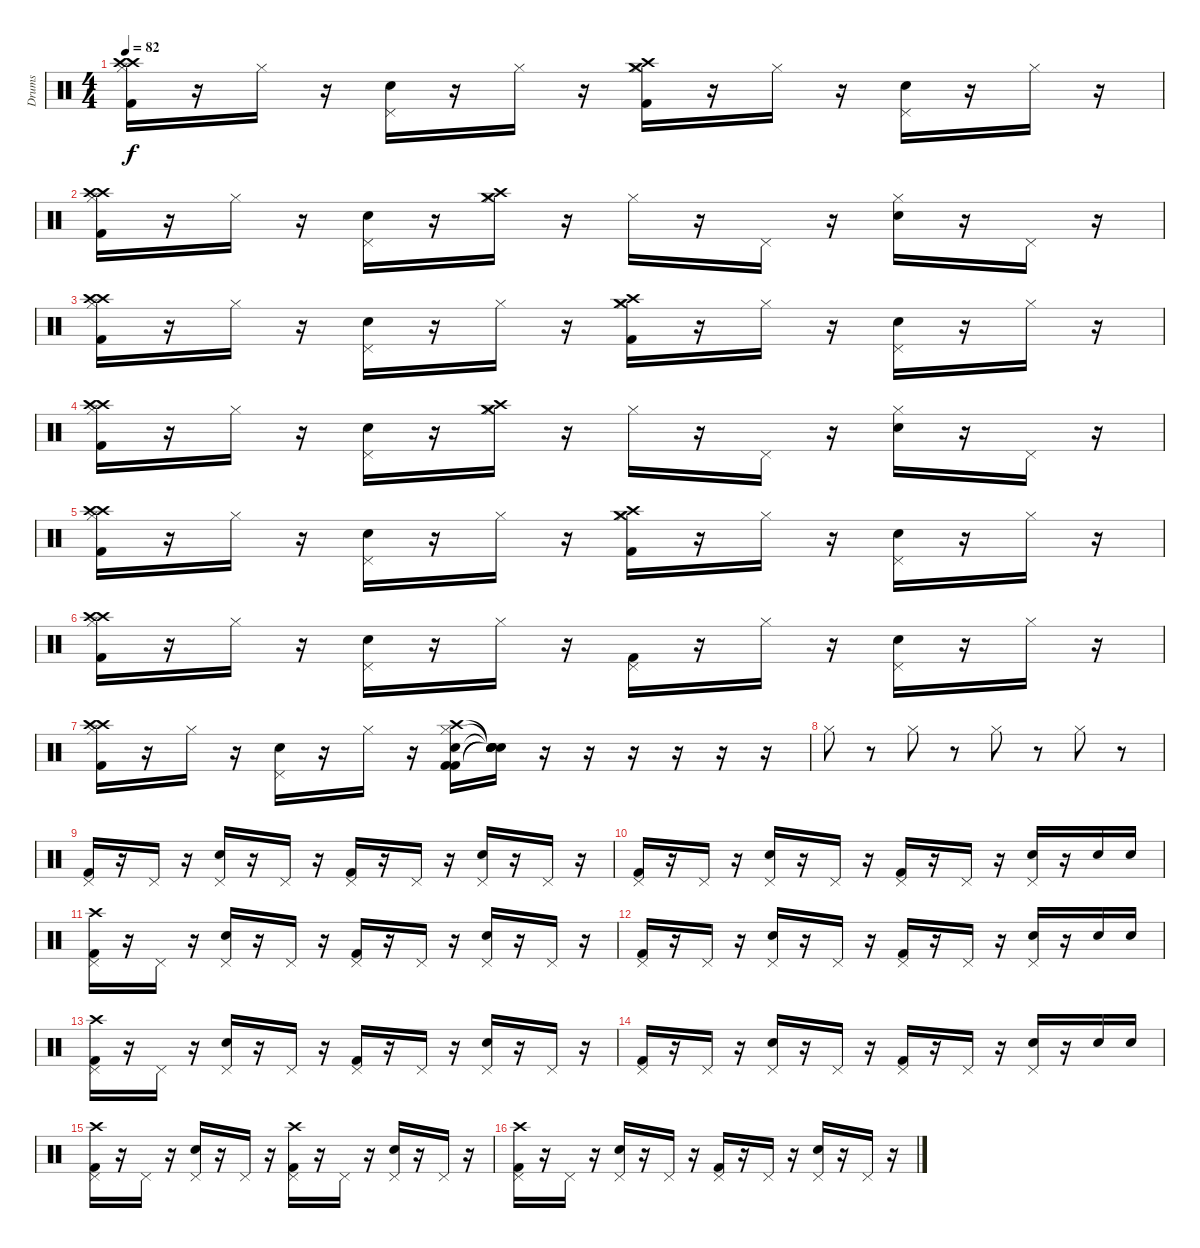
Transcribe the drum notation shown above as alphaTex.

\track ("Drums" "Drums") {instrument percussion}
\staff {score}
\articulation defaults
\ts (4 4)
\tempo 82
\clef neutral
\ks c
("Hi-Hat (closed)" "Crash high (hit)" "Crash high (hit)" "Kick (hit) 2").16{dy f} r.16 "Hi-Hat (closed)".16 r.16 ("Pedal Hi-Hat (hit)" "Snare (hit) 2").16 r.16 "Hi-Hat (closed)".16 r.16 ("Hi-Hat (closed)" "Crash high (hit)" "Crash medium (hit)" "Kick (hit) 2").16 r.16 "Hi-Hat (closed)".16 r.16 ("Pedal Hi-Hat (hit)" "Snare (hit) 2").16 r.16 "Hi-Hat (closed)".16 r.16 |
("Hi-Hat (closed)" "Crash high (hit)" "Crash high (hit)" "Kick (hit) 2").16 r.16 "Hi-Hat (closed)".16 r.16 ("Pedal Hi-Hat (hit)" "Snare (hit) 2").16 r.16 ("Hi-Hat (closed)" "Crash high (hit)" "Crash medium (hit)").16 r.16 "Hi-Hat (closed)".16 r.16 "Pedal Hi-Hat (hit)".16 r.16 ("Hi-Hat (closed)" "Snare (hit) 2").16 r.16 "Pedal Hi-Hat (hit)".16 r.16 |
("Hi-Hat (closed)" "Crash high (hit)" "Crash high (hit)" "Kick (hit) 2").16 r.16 "Hi-Hat (closed)".16 r.16 ("Pedal Hi-Hat (hit)" "Snare (hit) 2").16 r.16 "Hi-Hat (closed)".16 r.16 ("Hi-Hat (closed)" "Crash high (hit)" "Crash medium (hit)" "Kick (hit) 2").16 r.16 "Hi-Hat (closed)".16 r.16 ("Pedal Hi-Hat (hit)" "Snare (hit) 2").16 r.16 "Hi-Hat (closed)".16 r.16 |
("Hi-Hat (closed)" "Crash high (hit)" "Crash high (hit)" "Kick (hit) 2").16 r.16 "Hi-Hat (closed)".16 r.16 ("Pedal Hi-Hat (hit)" "Snare (hit) 2").16 r.16 ("Hi-Hat (closed)" "Crash high (hit)" "Crash medium (hit)").16 r.16 "Hi-Hat (closed)".16 r.16 "Pedal Hi-Hat (hit)".16 r.16 ("Hi-Hat (closed)" "Snare (hit) 2").16 r.16 "Pedal Hi-Hat (hit)".16 r.16 |
("Hi-Hat (closed)" "Crash high (hit)" "Crash high (hit)" "Kick (hit) 2").16 r.16 "Hi-Hat (closed)".16 r.16 ("Pedal Hi-Hat (hit)" "Snare (hit) 2").16 r.16 "Hi-Hat (closed)".16 r.16 ("Hi-Hat (closed)" "Crash high (hit)" "Crash medium (hit)" "Kick (hit) 2").16 r.16 "Hi-Hat (closed)".16 r.16 ("Pedal Hi-Hat (hit)" "Snare (hit) 2").16 r.16 "Hi-Hat (closed)".16 r.16 |
("Hi-Hat (closed)" "Crash high (hit)" "Crash high (hit)" "Kick (hit) 2").16 r.16 "Hi-Hat (closed)".16 r.16 ("Pedal Hi-Hat (hit)" "Snare (hit) 2").16 r.16 "Hi-Hat (closed)".16 r.16 ("Pedal Hi-Hat (hit)" "Kick (hit) 2").16 r.16 "Hi-Hat (closed)".16 r.16 ("Pedal Hi-Hat (hit)" "Snare (hit) 2").16 r.16 "Hi-Hat (closed)".16 r.16 |
("Hi-Hat (closed)" "Crash high (hit)" "Crash high (hit)" "Kick (hit) 2").16 r.16 "Hi-Hat (closed)".16 r.16 ("Pedal Hi-Hat (hit)" "Snare (hit) 2").16 r.16 "Hi-Hat (closed)".16 r.16 ("Hi-Hat (closed)" "Kick (hit) 2" "Snare (hit) 2" "Kick (hit) 2" "Crash high (hit)").16 ("Snare (hit)"{t} "Snare (hit)"{t} "Snare (hit)"{t} "Snare (hit)"{t} "Snare (hit)"{t}).16 r.16 r.16 r.16 r.16 r.16 r.16 |
"Hi-Hat (closed)".8 r.8 "Hi-Hat (closed)".8 r.8 "Hi-Hat (closed)".8 r.8 "Hi-Hat (closed)".8 r.8 |
("Pedal Hi-Hat (hit)" "Kick (hit) 2").16 r.16 "Pedal Hi-Hat (hit)".16 r.16 ("Pedal Hi-Hat (hit)" "Snare (hit) 2").16 r.16 "Pedal Hi-Hat (hit)".16 r.16 ("Pedal Hi-Hat (hit)" "Kick (hit) 2").16 r.16 "Pedal Hi-Hat (hit)".16 r.16 ("Pedal Hi-Hat (hit)" "Snare (hit) 2").16 r.16 "Pedal Hi-Hat (hit)".16 r.16 |
("Pedal Hi-Hat (hit)" "Kick (hit) 2").16 r.16 "Pedal Hi-Hat (hit)".16 r.16 ("Pedal Hi-Hat (hit)" "Snare (hit) 2").16 r.16 "Pedal Hi-Hat (hit)".16 r.16 ("Pedal Hi-Hat (hit)" "Kick (hit) 2").16 r.16 "Pedal Hi-Hat (hit)".16 r.16 ("Pedal Hi-Hat (hit)" "Snare (hit) 2").16 r.16 "Snare (hit) 2".16 "Snare (hit) 2".16 |
("Pedal Hi-Hat (hit)" "Crash high (hit)" "Kick (hit) 2").16 r.16 "Pedal Hi-Hat (hit)".16 r.16 ("Pedal Hi-Hat (hit)" "Snare (hit) 2").16 r.16 "Pedal Hi-Hat (hit)".16 r.16 ("Pedal Hi-Hat (hit)" "Kick (hit) 2").16 r.16 "Pedal Hi-Hat (hit)".16 r.16 ("Pedal Hi-Hat (hit)" "Snare (hit) 2").16 r.16 "Pedal Hi-Hat (hit)".16 r.16 |
("Pedal Hi-Hat (hit)" "Kick (hit) 2").16 r.16 "Pedal Hi-Hat (hit)".16 r.16 ("Pedal Hi-Hat (hit)" "Snare (hit) 2").16 r.16 "Pedal Hi-Hat (hit)".16 r.16 ("Pedal Hi-Hat (hit)" "Kick (hit) 2").16 r.16 "Pedal Hi-Hat (hit)".16 r.16 ("Pedal Hi-Hat (hit)" "Snare (hit) 2").16 r.16 "Snare (hit) 2".16 "Snare (hit) 2".16 |
("Pedal Hi-Hat (hit)" "Crash high (hit)" "Kick (hit) 2").16 r.16 "Pedal Hi-Hat (hit)".16 r.16 ("Pedal Hi-Hat (hit)" "Snare (hit) 2").16 r.16 "Pedal Hi-Hat (hit)".16 r.16 ("Pedal Hi-Hat (hit)" "Kick (hit) 2").16 r.16 "Pedal Hi-Hat (hit)".16 r.16 ("Pedal Hi-Hat (hit)" "Snare (hit) 2").16 r.16 "Pedal Hi-Hat (hit)".16 r.16 |
("Pedal Hi-Hat (hit)" "Kick (hit) 2").16 r.16 "Pedal Hi-Hat (hit)".16 r.16 ("Pedal Hi-Hat (hit)" "Snare (hit) 2").16 r.16 "Pedal Hi-Hat (hit)".16 r.16 ("Pedal Hi-Hat (hit)" "Kick (hit) 2").16 r.16 "Pedal Hi-Hat (hit)".16 r.16 ("Pedal Hi-Hat (hit)" "Snare (hit) 2").16 r.16 "Snare (hit) 2".16 "Snare (hit) 2".16 |
("Pedal Hi-Hat (hit)" "Crash high (hit)" "Kick (hit) 2").16 r.16 "Pedal Hi-Hat (hit)".16 r.16 ("Pedal Hi-Hat (hit)" "Snare (hit) 2").16 r.16 "Pedal Hi-Hat (hit)".16 r.16 ("Pedal Hi-Hat (hit)" "Crash high (hit)" "Kick (hit) 2").16 r.16 "Pedal Hi-Hat (hit)".16 r.16 ("Pedal Hi-Hat (hit)" "Snare (hit) 2").16 r.16 "Pedal Hi-Hat (hit)".16 r.16 |
("Pedal Hi-Hat (hit)" "Crash high (hit)" "Kick (hit) 2").16 r.16 "Pedal Hi-Hat (hit)".16 r.16 ("Pedal Hi-Hat (hit)" "Snare (hit) 2").16 r.16 "Pedal Hi-Hat (hit)".16 r.16 ("Pedal Hi-Hat (hit)" "Kick (hit) 2").16 r.16 "Pedal Hi-Hat (hit)".16 r.16 ("Pedal Hi-Hat (hit)" "Snare (hit) 2").16 r.16 "Pedal Hi-Hat (hit)".16 r.16
